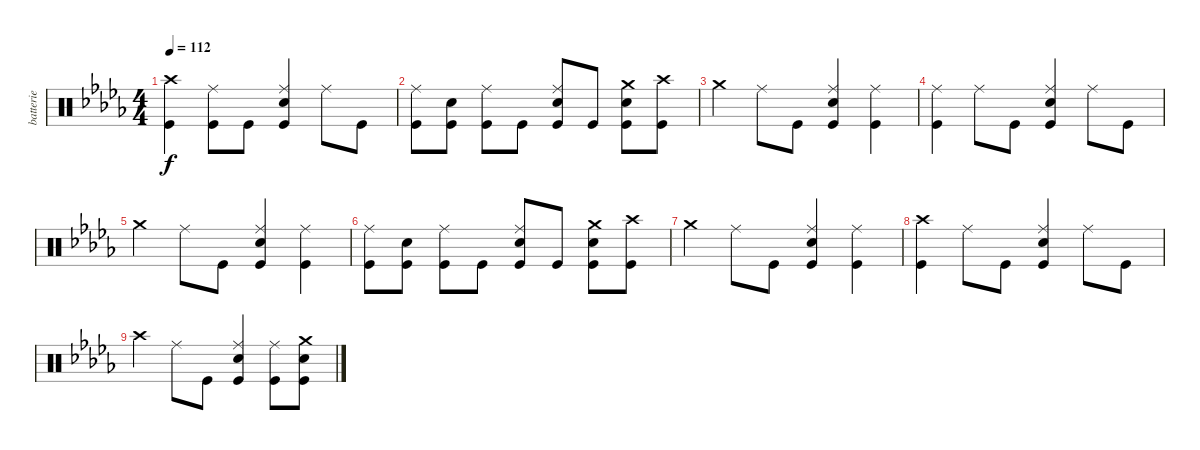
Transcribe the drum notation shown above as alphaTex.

\track ("batterie" "batterie") {instrument percussion}
\staff {score}
\articulation defaults
\ts (4 4)
\tempo 112
\clef neutral
\ks bbminor
("Kick (hit)" "Crash high (hit)").4{dy f} ("Kick (hit)" "Ride (middle)").8 "Kick (hit)".8 ("Kick (hit)" "Snare (hit) 2" "Ride (middle)").4 "Ride (middle)".8 "Kick (hit)".8 |
("Kick (hit)" "Ride (middle)").8 ("Kick (hit)" "Snare (hit) 2").8 ("Kick (hit)" "Ride (middle)").8 "Kick (hit)".8 ("Kick (hit)" "Snare (hit) 2" "Ride (middle)").8 "Kick (hit)".8 ("Kick (hit)" "Snare (hit) 2" "Crash medium (hit)").8 ("Kick (hit)" "Crash high (hit)").8 |
"Crash medium (hit)".4 "Ride (middle)".8 "Kick (hit)".8 ("Kick (hit)" "Snare (hit) 2" "Ride (middle)").4 ("Kick (hit)" "Ride (middle)").4 |
("Kick (hit)" "Ride (middle)").4 "Ride (middle)".8 "Kick (hit)".8 ("Kick (hit)" "Snare (hit) 2" "Ride (middle)").4 "Ride (middle)".8 "Kick (hit)".8 |
"Crash medium (hit)".4 "Ride (middle)".8 "Kick (hit)".8 ("Kick (hit)" "Snare (hit) 2" "Ride (middle)").4 ("Kick (hit)" "Ride (middle)").4 |
("Kick (hit)" "Ride (middle)").8 ("Kick (hit)" "Snare (hit) 2").8 ("Kick (hit)" "Ride (middle)").8 "Kick (hit)".8 ("Kick (hit)" "Snare (hit) 2" "Ride (middle)").8 "Kick (hit)".8 ("Kick (hit)" "Snare (hit) 2" "Crash medium (hit)").8 ("Kick (hit)" "Crash high (hit)").8 |
"Crash medium (hit)".4 "Ride (middle)".8 "Kick (hit)".8 ("Kick (hit)" "Snare (hit) 2" "Ride (middle)").4 ("Kick (hit)" "Ride (middle)").4 |
("Kick (hit)" "Crash high (hit)").4 "Ride (middle)".8 "Kick (hit)".8 ("Kick (hit)" "Snare (hit) 2" "Ride (middle)").4 "Ride (middle)".8 "Kick (hit)".8 |
"Crash high (hit)".4 "Ride (middle)".8 "Kick (hit)".8 ("Kick (hit)" "Snare (hit) 2" "Ride (middle)").4 ("Kick (hit)" "Ride (middle)").8 ("Kick (hit)" "Snare (hit) 2" "Crash medium (hit)").8
